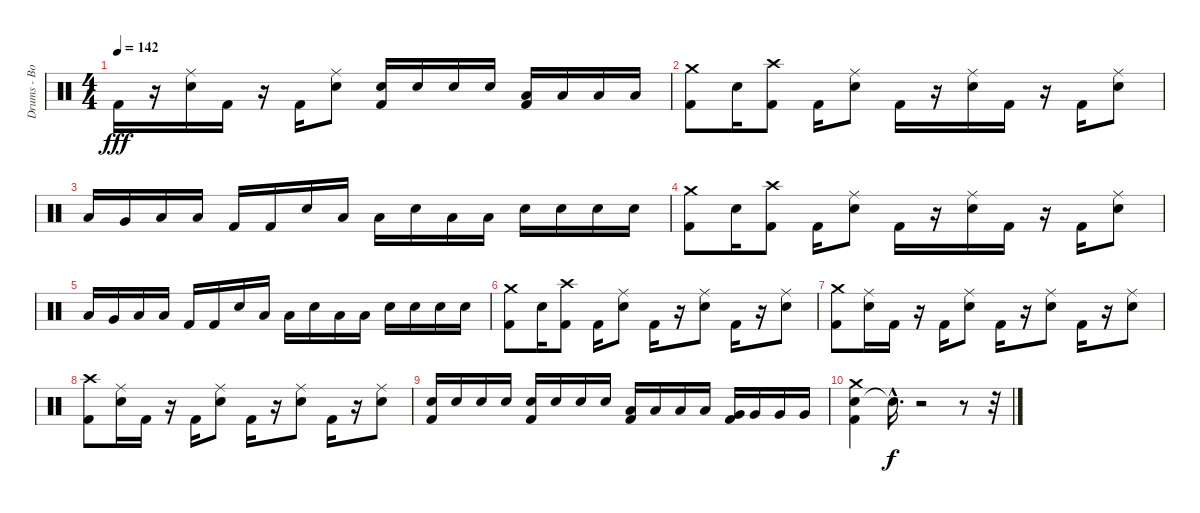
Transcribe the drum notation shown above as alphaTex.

\track ("Drums - Bobby Schayer" "Drums - Bo") {instrument percussion}
\staff {score}
\articulation defaults
\ts (4 4)
\tempo 142
\clef neutral
\ks c "Kick (hit) 2".16{dy fff}
r.16 ("Electric Snare (hit)" "Ride (middle)").16 "Kick (hit) 2".16 r.16 "Kick (hit) 2".16 ("Electric Snare (hit)" "Ride (middle)").8 ("Electric Snare (hit)" "Kick (hit) 2").16 "Electric Snare (hit)".16 "Electric Snare (hit)".16 "Electric Snare (hit)".16 ("Low Tom (hit)" "Kick (hit) 2").16 "Low Tom (hit)".16 "Low Tom (hit)".16 "Low Tom (hit)".16 |
("Kick (hit) 2" "Crash medium (hit)").8 "Electric Snare (hit)".16 ("Kick (hit) 2" "Crash high (hit)").8 "Kick (hit) 2".16 ("Electric Snare (hit)" "Ride (middle)").8 "Kick (hit) 2".16 r.16 ("Electric Snare (hit)" "Ride (middle)").16 "Kick (hit) 2".16 r.16 "Kick (hit) 2".16 ("Electric Snare (hit)" "Ride (middle)").8 |
"Low Tom (hit)".16 "Very Low Tom (hit)".16 "Low Floor Tom (hit)".16 "Low Floor Tom (hit)".16 "Kick (hit) 2".16 "Kick (hit) 2".16 "Electric Snare (hit)".16 "Low Floor Tom (hit)".16 "Low Floor Tom (hit)".16 "Electric Snare (hit)".16 "Low Tom (hit)".16 "Low Floor Tom (hit)".16 "Electric Snare (hit)".16 "Electric Snare (hit)".16 "Electric Snare (hit)".16 "Electric Snare (hit)".16 |
("Kick (hit) 2" "Crash medium (hit)").8 "Electric Snare (hit)".16 ("Kick (hit) 2" "Crash high (hit)").8 "Kick (hit) 2".16 ("Electric Snare (hit)" "Ride (middle)").8 "Kick (hit) 2".16 r.16 ("Electric Snare (hit)" "Ride (middle)").16 "Kick (hit) 2".16 r.16 "Kick (hit) 2".16 ("Electric Snare (hit)" "Ride (middle)").8 |
"Low Tom (hit)".16 "Very Low Tom (hit)".16 "Low Floor Tom (hit)".16 "Low Floor Tom (hit)".16 "Kick (hit) 2".16 "Kick (hit) 2".16 "Electric Snare (hit)".16 "Low Floor Tom (hit)".16 "Low Floor Tom (hit)".16 "Electric Snare (hit)".16 "Low Tom (hit)".16 "Low Floor Tom (hit)".16 "Electric Snare (hit)".16 "Electric Snare (hit)".16 "Electric Snare (hit)".16 "Electric Snare (hit)".16 |
("Kick (hit) 2" "Crash medium (hit)").8 "Electric Snare (hit)".16 ("Kick (hit) 2" "Crash high (hit)").8 "Kick (hit) 2".16 ("Electric Snare (hit)" "Ride (middle)").8 "Kick (hit) 2".16 r.16 ("Electric Snare (hit)" "Ride (middle)").8 "Kick (hit) 2".16 r.16 ("Electric Snare (hit)" "Ride (middle)").8 |
("Kick (hit) 2" "Crash medium (hit)").8 ("Electric Snare (hit)" "Ride (middle)").16 "Kick (hit) 2".16 r.16 "Kick (hit) 2".16 ("Electric Snare (hit)" "Ride (middle)").8 "Kick (hit) 2".16 r.16 ("Electric Snare (hit)" "Ride (middle)").8 "Kick (hit) 2".16 r.16 ("Electric Snare (hit)" "Ride (middle)").8 |
("Kick (hit) 2" "Crash high (hit)").8 ("Electric Snare (hit)" "Ride (middle)").16 "Kick (hit) 2".16 r.16 "Kick (hit) 2".16 ("Electric Snare (hit)" "Ride (middle)").8 "Kick (hit) 2".16 r.16 ("Electric Snare (hit)" "Ride (middle)").8 "Kick (hit) 2".16 r.16 ("Electric Snare (hit)" "Ride (middle)").8 |
("Electric Snare (hit)" "Kick (hit) 2").16 "Electric Snare (hit)".16 "Electric Snare (hit)".16 "Electric Snare (hit)".16 ("Electric Snare (hit)" "Kick (hit) 2").16 "Electric Snare (hit)".16 "Electric Snare (hit)".16 "Electric Snare (hit)".16 ("Kick (hit) 2" "Low Tom (hit)").16 "Low Tom (hit)".16 "Low Tom (hit)".16 "Low Tom (hit)".16 ("Kick (hit) 2" "Very Low Tom (hit)").16 "Very Low Tom (hit)".16 "Very Low Tom (hit)".16 "Very Low Tom (hit)".16 |
("Electric Snare (hit)" "Kick (hit) 2" "Crash medium (hit)").4 "Snare (hit)"{hac t}.16{d dy f} r.2 r.8 r.32
